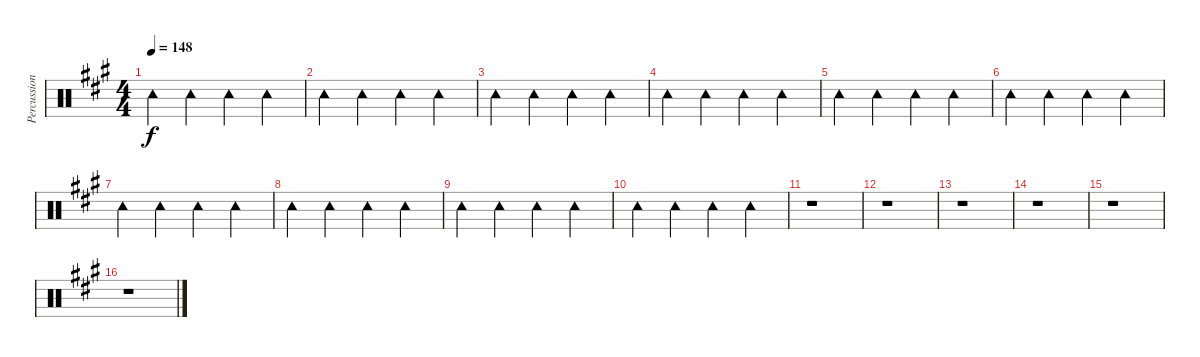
\track ("Percussion" "Percussion") {instrument percussion}
\staff {score}
\articulation defaults
\ts (4 4)
\tempo 148
\clef neutral
\ks a "Tambourine (hit)".4{dy f} "Tambourine (hit)".4 "Tambourine (hit)".4 "Tambourine (hit)".4
|
"Tambourine (hit)".4 "Tambourine (hit)".4 "Tambourine (hit)".4 "Tambourine (hit)".4 |
"Tambourine (hit)".4 "Tambourine (hit)".4 "Tambourine (hit)".4 "Tambourine (hit)".4 |
"Tambourine (hit)".4 "Tambourine (hit)".4 "Tambourine (hit)".4 "Tambourine (hit)".4 |
"Tambourine (hit)".4 "Tambourine (hit)".4 "Tambourine (hit)".4 "Tambourine (hit)".4 |
"Tambourine (hit)".4 "Tambourine (hit)".4 "Tambourine (hit)".4 "Tambourine (hit)".4 |
"Tambourine (hit)".4 "Tambourine (hit)".4 "Tambourine (hit)".4 "Tambourine (hit)".4 |
"Tambourine (hit)".4 "Tambourine (hit)".4 "Tambourine (hit)".4 "Tambourine (hit)".4 |
"Tambourine (hit)".4 "Tambourine (hit)".4 "Tambourine (hit)".4 "Tambourine (hit)".4 |
"Tambourine (hit)".4 "Tambourine (hit)".4 "Tambourine (hit)".4 "Tambourine (hit)".4 |
r.1 |
r.1 |
r.1 |
r.1 |
r.1 |
r.1
